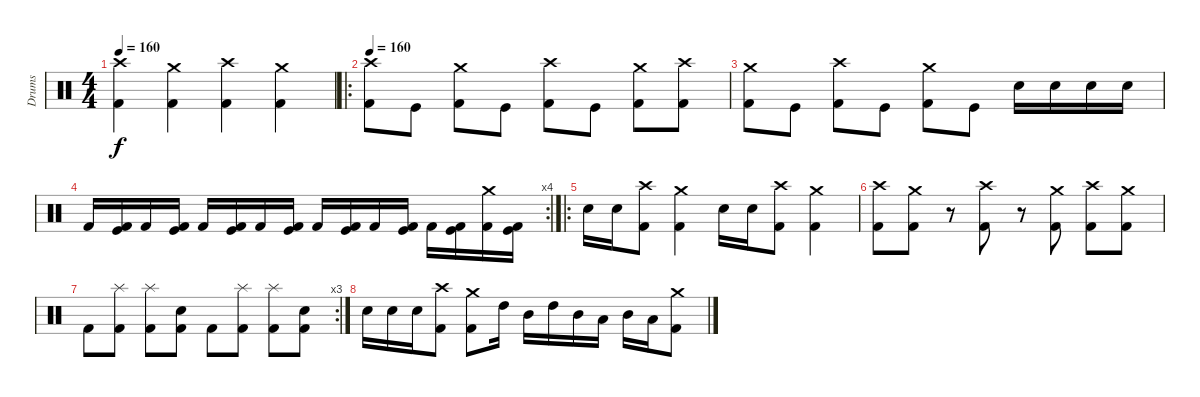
\track ("Drums" "Drums") {instrument percussion}
\staff {score}
\articulation defaults
\ts (4 4)
\tempo 160
\clef neutral
\ks c
("Crash high (hit)" "Kick (hit) 2").4{dy f volume 12 balance 0} ("Crash medium (hit)" "Kick (hit) 2").4{balance 16} ("Crash high (hit)" "Kick (hit) 2").4{balance 2} ("Crash medium (hit)" "Kick (hit) 2").4{balance 14} |
\ro
\tempo 160
("Crash high (hit)" "Kick (hit) 2").8 "Kick (hit)".8 ("Crash medium (hit)" "Kick (hit) 2").8 "Kick (hit)".8 ("Crash high (hit)" "Kick (hit) 2").8 "Kick (hit)".8 ("Crash medium (hit)" "Kick (hit) 2").8 ("Crash high (hit)" "Kick (hit) 2").8 |
("Crash medium (hit)" "Kick (hit) 2").8 "Kick (hit)".8 ("Crash high (hit)" "Kick (hit) 2").8 "Kick (hit)".8 ("Crash medium (hit)" "Kick (hit) 2").8 "Kick (hit)".8 "Electric Snare (hit)".16 "Electric Snare (hit)".16 "Electric Snare (hit)".16 "Electric Snare (hit)".16 |
\rc 4 "Kick (hit) 2".16{volume 15}
("Kick (hit)" "Kick (hit) 2").16 "Kick (hit) 2".16 ("Kick (hit)" "Kick (hit) 2").16 "Kick (hit) 2".16 ("Kick (hit)" "Kick (hit) 2").16 "Kick (hit) 2".16 ("Kick (hit)" "Kick (hit) 2").16 "Kick (hit) 2".16 ("Kick (hit)" "Kick (hit) 2").16 "Kick (hit) 2".16 ("Kick (hit)" "Kick (hit) 2").16 "Kick (hit) 2".16 ("Kick (hit)" "Kick (hit) 2").16 ("Crash medium (hit)" "Kick (hit) 2").16 ("Kick (hit)" "Kick (hit) 2").16 |
\ro "Electric Snare (hit)".16 "Electric Snare (hit)".16
("Crash high (hit)" "Kick (hit) 2").8 ("Crash medium (hit)" "Kick (hit) 2").4 "Electric Snare (hit)".16 "Electric Snare (hit)".16 ("Crash high (hit)" "Kick (hit) 2").8 ("Crash medium (hit)" "Kick (hit) 2").4 |
("Crash high (hit)" "Kick (hit) 2").8 ("Crash medium (hit)" "Kick (hit) 2").8 r.8 ("Crash high (hit)" "Kick (hit) 2").8 r.8 ("Crash medium (hit)" "Kick (hit) 2").8 ("Crash high (hit)" "Kick (hit) 2").8 ("Crash medium (hit)" "Kick (hit) 2").8 |
\rc 3 "Kick (hit) 2".8
("Splash (hit)" "Kick (hit) 2").8 ("Splash (hit)" "Kick (hit) 2").8 ("Electric Snare (hit)" "Kick (hit) 2").8 "Kick (hit) 2".8 ("Splash (hit)" "Kick (hit) 2").8 ("Splash (hit)" "Kick (hit) 2").8 ("Electric Snare (hit)" "Kick (hit) 2").8 |
"Electric Snare (hit)".16{volume 12} "Electric Snare (hit)".16 "Electric Snare (hit)".16 ("Crash high (hit)" "Kick (hit) 2").8 ("Crash medium (hit)" "Kick (hit) 2").8 "High Tom (hit)".16 "Mid Tom (hit)".16 "High Tom (hit)".16 "Mid Tom (hit)".16 "Low Tom (hit)".16 "Mid Tom (hit)".16 "Low Tom (hit)".16 ("Crash medium (hit)" "Kick (hit) 2").8
